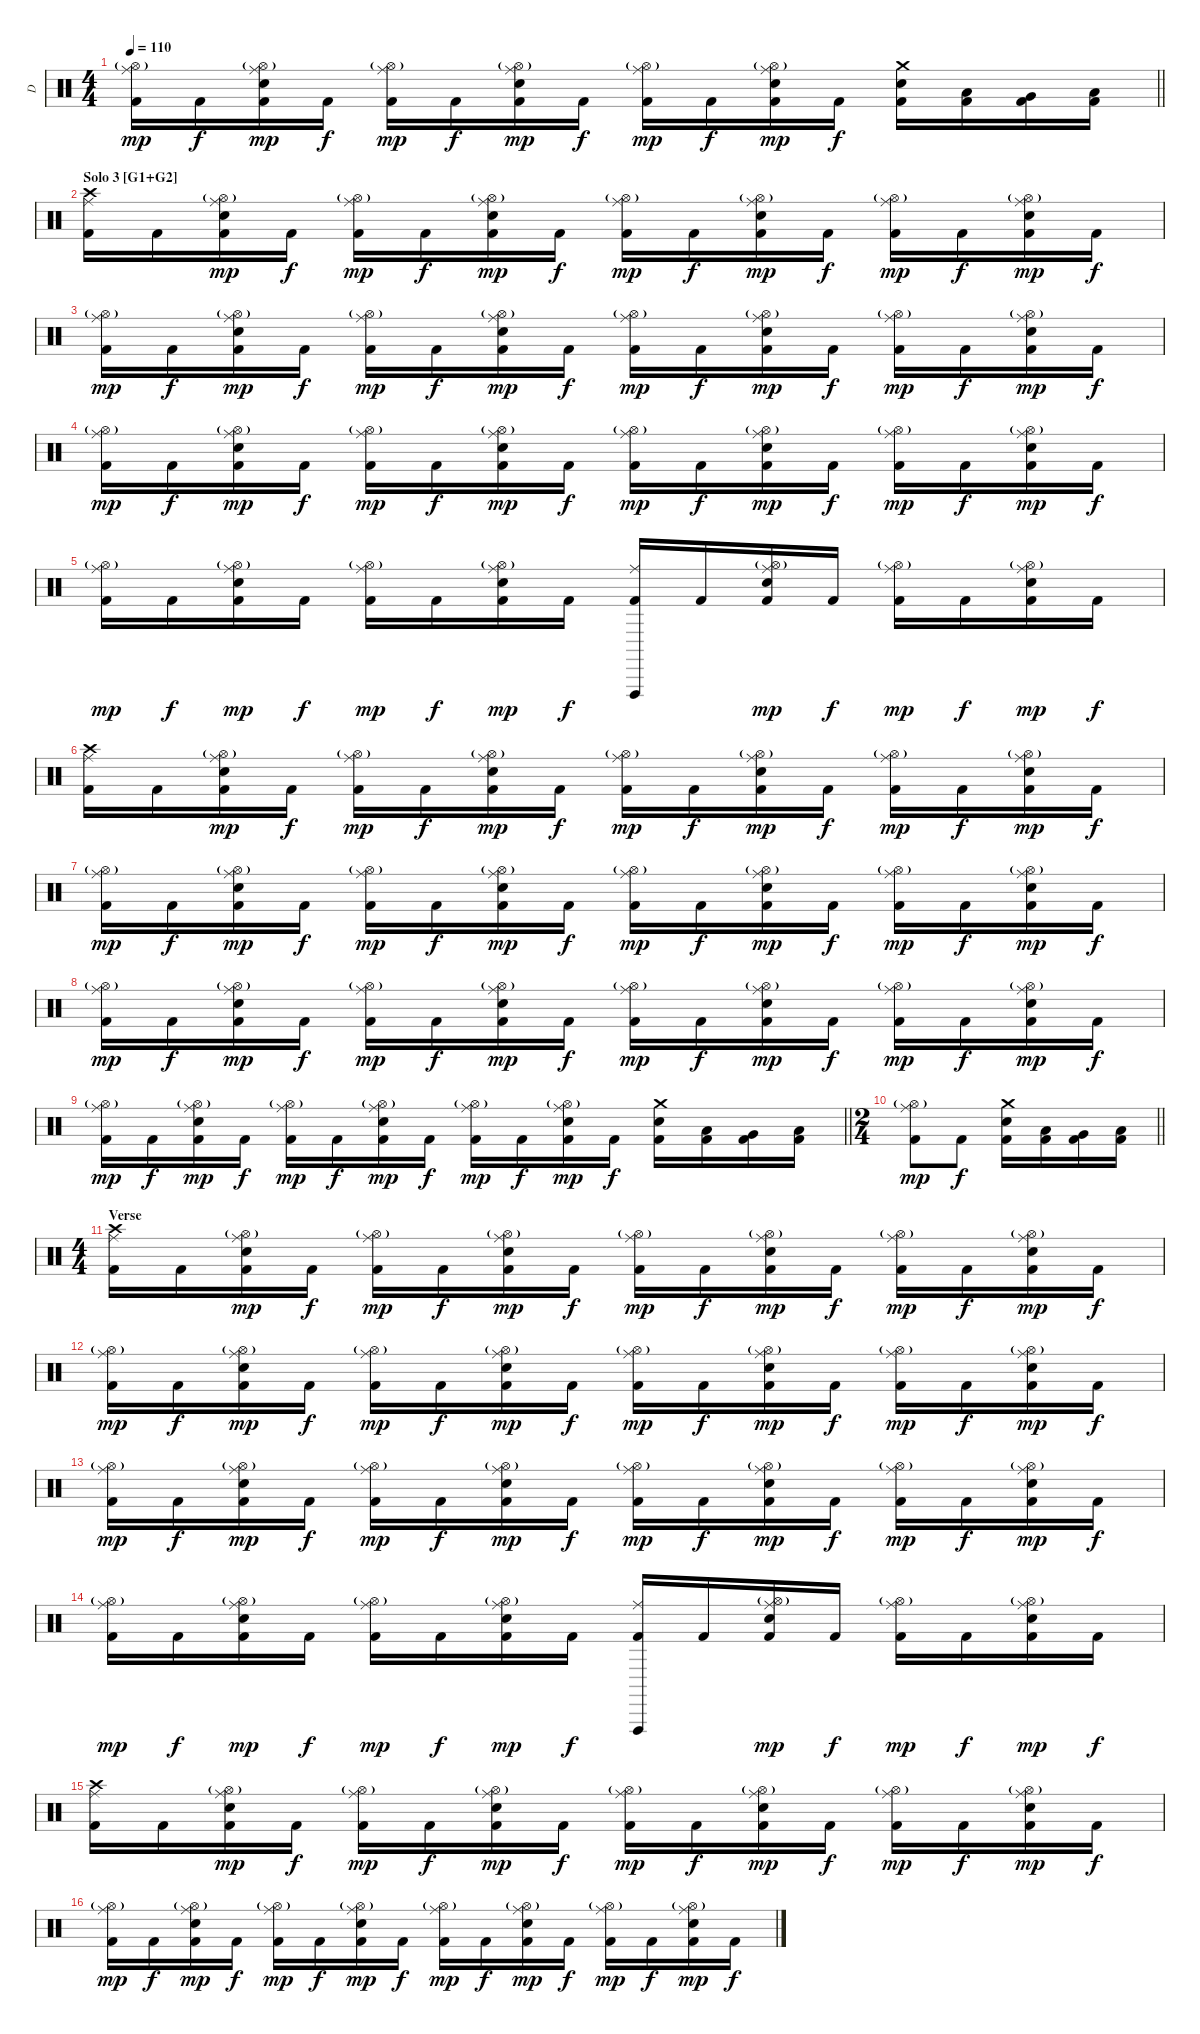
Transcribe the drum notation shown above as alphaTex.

\track ("D" "D") {instrument percussion}
\staff {score}
\articulation defaults
\ts (4 4)
\tempo 110
\clef neutral
\barLineRight lightlight
\ks c
("Ride (middle)" "Hi-Hat (open)"{g} "Kick (hit) 2").16{dy mp} "Kick (hit) 2".16{dy f} ("Ride (middle)" "Hi-Hat (open)"{g} "Electric Snare (hit)" "Kick (hit) 2").16{dy mp} "Kick (hit) 2".16{dy f} ("Ride (middle)" "Hi-Hat (open)"{g} "Kick (hit) 2").16{dy mp} "Kick (hit) 2".16{dy f} ("Ride (middle)" "Hi-Hat (open)"{g} "Electric Snare (hit)" "Kick (hit) 2").16{dy mp} "Kick (hit) 2".16{dy f} ("Ride (middle)" "Hi-Hat (open)"{g} "Kick (hit) 2").16{dy mp} "Kick (hit) 2".16{dy f} ("Ride (middle)" "Hi-Hat (open)"{g} "Electric Snare (hit)" "Kick (hit) 2").16{dy mp} "Kick (hit) 2".16{dy f} ("Crash medium (hit)" "Electric Snare (hit)" "Kick (hit) 2").16 ("Low Tom (hit)" "Kick (hit) 2").16 ("Very Low Tom (hit)" "Kick (hit) 2").16 ("Low Floor Tom (hit)" "Kick (hit) 2").16 |
\section ("" "Solo 3 [G1+G2]")
("Crash high (hit)" "Ride (middle)" "Kick (hit) 2").16 "Kick (hit) 2".16 ("Ride (middle)" "Hi-Hat (open)"{g} "Electric Snare (hit)" "Kick (hit) 2").16{dy mp} "Kick (hit) 2".16{dy f} ("Ride (middle)" "Hi-Hat (open)"{g} "Kick (hit) 2").16{dy mp} "Kick (hit) 2".16{dy f} ("Ride (middle)" "Hi-Hat (open)"{g} "Electric Snare (hit)" "Kick (hit) 2").16{dy mp} "Kick (hit) 2".16{dy f} ("Ride (middle)" "Hi-Hat (open)"{g} "Kick (hit) 2").16{dy mp} "Kick (hit) 2".16{dy f} ("Ride (middle)" "Hi-Hat (open)"{g} "Electric Snare (hit)" "Kick (hit) 2").16{dy mp} "Kick (hit) 2".16{dy f} ("Ride (middle)" "Hi-Hat (open)"{g} "Kick (hit) 2").16{dy mp} "Kick (hit) 2".16{dy f} ("Ride (middle)" "Hi-Hat (open)"{g} "Electric Snare (hit)" "Kick (hit) 2").16{dy mp} "Kick (hit) 2".16{dy f} |
("Ride (middle)" "Hi-Hat (open)"{g} "Kick (hit) 2").16{dy mp} "Kick (hit) 2".16{dy f} ("Ride (middle)" "Hi-Hat (open)"{g} "Electric Snare (hit)" "Kick (hit) 2").16{dy mp} "Kick (hit) 2".16{dy f} ("Ride (middle)" "Hi-Hat (open)"{g} "Kick (hit) 2").16{dy mp} "Kick (hit) 2".16{dy f} ("Ride (middle)" "Hi-Hat (open)"{g} "Electric Snare (hit)" "Kick (hit) 2").16{dy mp} "Kick (hit) 2".16{dy f} ("Ride (middle)" "Hi-Hat (open)"{g} "Kick (hit) 2").16{dy mp} "Kick (hit) 2".16{dy f} ("Ride (middle)" "Hi-Hat (open)"{g} "Electric Snare (hit)" "Kick (hit) 2").16{dy mp} "Kick (hit) 2".16{dy f} ("Ride (middle)" "Hi-Hat (open)"{g} "Kick (hit) 2").16{dy mp} "Kick (hit) 2".16{dy f} ("Ride (middle)" "Hi-Hat (open)"{g} "Electric Snare (hit)" "Kick (hit) 2").16{dy mp} "Kick (hit) 2".16{dy f} |
("Ride (middle)" "Hi-Hat (open)"{g} "Kick (hit) 2").16{dy mp} "Kick (hit) 2".16{dy f} ("Ride (middle)" "Hi-Hat (open)"{g} "Electric Snare (hit)" "Kick (hit) 2").16{dy mp} "Kick (hit) 2".16{dy f} ("Ride (middle)" "Hi-Hat (open)"{g} "Kick (hit) 2").16{dy mp} "Kick (hit) 2".16{dy f} ("Ride (middle)" "Hi-Hat (open)"{g} "Electric Snare (hit)" "Kick (hit) 2").16{dy mp} "Kick (hit) 2".16{dy f} ("Ride (middle)" "Hi-Hat (open)"{g} "Kick (hit) 2").16{dy mp} "Kick (hit) 2".16{dy f} ("Ride (middle)" "Hi-Hat (open)"{g} "Electric Snare (hit)" "Kick (hit) 2").16{dy mp} "Kick (hit) 2".16{dy f} ("Ride (middle)" "Hi-Hat (open)"{g} "Kick (hit) 2").16{dy mp} "Kick (hit) 2".16{dy f} ("Ride (middle)" "Hi-Hat (open)"{g} "Electric Snare (hit)" "Kick (hit) 2").16{dy mp} "Kick (hit) 2".16{dy f} |
("Ride (middle)" "Hi-Hat (open)"{g} "Kick (hit) 2").16{dy mp} "Kick (hit) 2".16{dy f} ("Ride (middle)" "Hi-Hat (open)"{g} "Electric Snare (hit)" "Kick (hit) 2").16{dy mp} "Kick (hit) 2".16{dy f} ("Ride (middle)" "Hi-Hat (open)"{g} "Kick (hit) 2").16{dy mp} "Kick (hit) 2".16{dy f} ("Ride (middle)" "Hi-Hat (open)"{g} "Electric Snare (hit)" "Kick (hit) 2").16{dy mp} "Kick (hit) 2".16{dy f} ("Ride (middle)" "Vibraslap (hit)" "Kick (hit) 2").16 "Kick (hit) 2".16 ("Ride (middle)" "Hi-Hat (open)"{g} "Electric Snare (hit)" "Kick (hit) 2").16{dy mp} "Kick (hit) 2".16{dy f} ("Ride (middle)" "Hi-Hat (open)"{g} "Kick (hit) 2").16{dy mp} "Kick (hit) 2".16{dy f} ("Ride (middle)" "Hi-Hat (open)"{g} "Electric Snare (hit)" "Kick (hit) 2").16{dy mp} "Kick (hit) 2".16{dy f} |
("Crash high (hit)" "Ride (middle)" "Kick (hit) 2").16 "Kick (hit) 2".16 ("Ride (middle)" "Hi-Hat (open)"{g} "Electric Snare (hit)" "Kick (hit) 2").16{dy mp} "Kick (hit) 2".16{dy f} ("Ride (middle)" "Hi-Hat (open)"{g} "Kick (hit) 2").16{dy mp} "Kick (hit) 2".16{dy f} ("Ride (middle)" "Hi-Hat (open)"{g} "Electric Snare (hit)" "Kick (hit) 2").16{dy mp} "Kick (hit) 2".16{dy f} ("Ride (middle)" "Hi-Hat (open)"{g} "Kick (hit) 2").16{dy mp} "Kick (hit) 2".16{dy f} ("Ride (middle)" "Hi-Hat (open)"{g} "Electric Snare (hit)" "Kick (hit) 2").16{dy mp} "Kick (hit) 2".16{dy f} ("Ride (middle)" "Hi-Hat (open)"{g} "Kick (hit) 2").16{dy mp} "Kick (hit) 2".16{dy f} ("Ride (middle)" "Hi-Hat (open)"{g} "Electric Snare (hit)" "Kick (hit) 2").16{dy mp} "Kick (hit) 2".16{dy f} |
("Ride (middle)" "Hi-Hat (open)"{g} "Kick (hit) 2").16{dy mp} "Kick (hit) 2".16{dy f} ("Ride (middle)" "Hi-Hat (open)"{g} "Electric Snare (hit)" "Kick (hit) 2").16{dy mp} "Kick (hit) 2".16{dy f} ("Ride (middle)" "Hi-Hat (open)"{g} "Kick (hit) 2").16{dy mp} "Kick (hit) 2".16{dy f} ("Ride (middle)" "Hi-Hat (open)"{g} "Electric Snare (hit)" "Kick (hit) 2").16{dy mp} "Kick (hit) 2".16{dy f} ("Ride (middle)" "Hi-Hat (open)"{g} "Kick (hit) 2").16{dy mp} "Kick (hit) 2".16{dy f} ("Ride (middle)" "Hi-Hat (open)"{g} "Electric Snare (hit)" "Kick (hit) 2").16{dy mp} "Kick (hit) 2".16{dy f} ("Ride (middle)" "Hi-Hat (open)"{g} "Kick (hit) 2").16{dy mp} "Kick (hit) 2".16{dy f} ("Ride (middle)" "Hi-Hat (open)"{g} "Electric Snare (hit)" "Kick (hit) 2").16{dy mp} "Kick (hit) 2".16{dy f} |
("Ride (middle)" "Hi-Hat (open)"{g} "Kick (hit) 2").16{dy mp} "Kick (hit) 2".16{dy f} ("Ride (middle)" "Hi-Hat (open)"{g} "Electric Snare (hit)" "Kick (hit) 2").16{dy mp} "Kick (hit) 2".16{dy f} ("Ride (middle)" "Hi-Hat (open)"{g} "Kick (hit) 2").16{dy mp} "Kick (hit) 2".16{dy f} ("Ride (middle)" "Hi-Hat (open)"{g} "Electric Snare (hit)" "Kick (hit) 2").16{dy mp} "Kick (hit) 2".16{dy f} ("Ride (middle)" "Hi-Hat (open)"{g} "Kick (hit) 2").16{dy mp} "Kick (hit) 2".16{dy f} ("Ride (middle)" "Hi-Hat (open)"{g} "Electric Snare (hit)" "Kick (hit) 2").16{dy mp} "Kick (hit) 2".16{dy f} ("Ride (middle)" "Hi-Hat (open)"{g} "Kick (hit) 2").16{dy mp} "Kick (hit) 2".16{dy f} ("Ride (middle)" "Hi-Hat (open)"{g} "Electric Snare (hit)" "Kick (hit) 2").16{dy mp} "Kick (hit) 2".16{dy f} |
\barLineRight lightlight
("Ride (middle)" "Hi-Hat (open)"{g} "Kick (hit) 2").16{dy mp} "Kick (hit) 2".16{dy f} ("Ride (middle)" "Hi-Hat (open)"{g} "Electric Snare (hit)" "Kick (hit) 2").16{dy mp} "Kick (hit) 2".16{dy f} ("Ride (middle)" "Hi-Hat (open)"{g} "Kick (hit) 2").16{dy mp} "Kick (hit) 2".16{dy f} ("Ride (middle)" "Hi-Hat (open)"{g} "Electric Snare (hit)" "Kick (hit) 2").16{dy mp} "Kick (hit) 2".16{dy f} ("Ride (middle)" "Hi-Hat (open)"{g} "Kick (hit) 2").16{dy mp} "Kick (hit) 2".16{dy f} ("Ride (middle)" "Hi-Hat (open)"{g} "Electric Snare (hit)" "Kick (hit) 2").16{dy mp} "Kick (hit) 2".16{dy f} ("Crash medium (hit)" "Electric Snare (hit)" "Kick (hit) 2").16 ("Low Tom (hit)" "Kick (hit) 2").16 ("Very Low Tom (hit)" "Kick (hit) 2").16 ("Low Floor Tom (hit)" "Kick (hit) 2").16 |
\ts (2 4)
\section ("" "")
\barLineRight lightlight
("Ride (middle)" "Hi-Hat (open)"{g} "Kick (hit) 2").8{dy mp} "Kick (hit) 2".8{dy f} ("Crash medium (hit)" "Electric Snare (hit)" "Kick (hit) 2").16 ("Low Tom (hit)" "Kick (hit) 2").16 ("Very Low Tom (hit)" "Kick (hit) 2").16 ("Low Floor Tom (hit)" "Kick (hit) 2").16 |
\ts (4 4)
\section ("" "Verse")
("Crash high (hit)" "Ride (middle)" "Kick (hit) 2").16 "Kick (hit) 2".16 ("Ride (middle)" "Hi-Hat (open)"{g} "Electric Snare (hit)" "Kick (hit) 2").16{dy mp} "Kick (hit) 2".16{dy f} ("Ride (middle)" "Hi-Hat (open)"{g} "Kick (hit) 2").16{dy mp} "Kick (hit) 2".16{dy f} ("Ride (middle)" "Hi-Hat (open)"{g} "Electric Snare (hit)" "Kick (hit) 2").16{dy mp} "Kick (hit) 2".16{dy f} ("Ride (middle)" "Hi-Hat (open)"{g} "Kick (hit) 2").16{dy mp} "Kick (hit) 2".16{dy f} ("Ride (middle)" "Hi-Hat (open)"{g} "Electric Snare (hit)" "Kick (hit) 2").16{dy mp} "Kick (hit) 2".16{dy f} ("Ride (middle)" "Hi-Hat (open)"{g} "Kick (hit) 2").16{dy mp} "Kick (hit) 2".16{dy f} ("Ride (middle)" "Hi-Hat (open)"{g} "Electric Snare (hit)" "Kick (hit) 2").16{dy mp} "Kick (hit) 2".16{dy f} |
("Ride (middle)" "Hi-Hat (open)"{g} "Kick (hit) 2").16{dy mp} "Kick (hit) 2".16{dy f} ("Ride (middle)" "Hi-Hat (open)"{g} "Electric Snare (hit)" "Kick (hit) 2").16{dy mp} "Kick (hit) 2".16{dy f} ("Ride (middle)" "Hi-Hat (open)"{g} "Kick (hit) 2").16{dy mp} "Kick (hit) 2".16{dy f} ("Ride (middle)" "Hi-Hat (open)"{g} "Electric Snare (hit)" "Kick (hit) 2").16{dy mp} "Kick (hit) 2".16{dy f} ("Ride (middle)" "Hi-Hat (open)"{g} "Kick (hit) 2").16{dy mp} "Kick (hit) 2".16{dy f} ("Ride (middle)" "Hi-Hat (open)"{g} "Electric Snare (hit)" "Kick (hit) 2").16{dy mp} "Kick (hit) 2".16{dy f} ("Ride (middle)" "Hi-Hat (open)"{g} "Kick (hit) 2").16{dy mp} "Kick (hit) 2".16{dy f} ("Ride (middle)" "Hi-Hat (open)"{g} "Electric Snare (hit)" "Kick (hit) 2").16{dy mp} "Kick (hit) 2".16{dy f} |
("Ride (middle)" "Hi-Hat (open)"{g} "Kick (hit) 2").16{dy mp} "Kick (hit) 2".16{dy f} ("Ride (middle)" "Hi-Hat (open)"{g} "Electric Snare (hit)" "Kick (hit) 2").16{dy mp} "Kick (hit) 2".16{dy f} ("Ride (middle)" "Hi-Hat (open)"{g} "Kick (hit) 2").16{dy mp} "Kick (hit) 2".16{dy f} ("Ride (middle)" "Hi-Hat (open)"{g} "Electric Snare (hit)" "Kick (hit) 2").16{dy mp} "Kick (hit) 2".16{dy f} ("Ride (middle)" "Hi-Hat (open)"{g} "Kick (hit) 2").16{dy mp} "Kick (hit) 2".16{dy f} ("Ride (middle)" "Hi-Hat (open)"{g} "Electric Snare (hit)" "Kick (hit) 2").16{dy mp} "Kick (hit) 2".16{dy f} ("Ride (middle)" "Hi-Hat (open)"{g} "Kick (hit) 2").16{dy mp} "Kick (hit) 2".16{dy f} ("Ride (middle)" "Hi-Hat (open)"{g} "Electric Snare (hit)" "Kick (hit) 2").16{dy mp} "Kick (hit) 2".16{dy f} |
("Ride (middle)" "Hi-Hat (open)"{g} "Kick (hit) 2").16{dy mp} "Kick (hit) 2".16{dy f} ("Ride (middle)" "Hi-Hat (open)"{g} "Electric Snare (hit)" "Kick (hit) 2").16{dy mp} "Kick (hit) 2".16{dy f} ("Ride (middle)" "Hi-Hat (open)"{g} "Kick (hit) 2").16{dy mp} "Kick (hit) 2".16{dy f} ("Ride (middle)" "Hi-Hat (open)"{g} "Electric Snare (hit)" "Kick (hit) 2").16{dy mp} "Kick (hit) 2".16{dy f} ("Ride (middle)" "Vibraslap (hit)" "Kick (hit) 2").16 "Kick (hit) 2".16 ("Ride (middle)" "Hi-Hat (open)"{g} "Electric Snare (hit)" "Kick (hit) 2").16{dy mp} "Kick (hit) 2".16{dy f} ("Ride (middle)" "Hi-Hat (open)"{g} "Kick (hit) 2").16{dy mp} "Kick (hit) 2".16{dy f} ("Ride (middle)" "Hi-Hat (open)"{g} "Electric Snare (hit)" "Kick (hit) 2").16{dy mp} "Kick (hit) 2".16{dy f} |
("Crash high (hit)" "Ride (middle)" "Kick (hit) 2").16 "Kick (hit) 2".16 ("Ride (middle)" "Hi-Hat (open)"{g} "Electric Snare (hit)" "Kick (hit) 2").16{dy mp} "Kick (hit) 2".16{dy f} ("Ride (middle)" "Hi-Hat (open)"{g} "Kick (hit) 2").16{dy mp} "Kick (hit) 2".16{dy f} ("Ride (middle)" "Hi-Hat (open)"{g} "Electric Snare (hit)" "Kick (hit) 2").16{dy mp} "Kick (hit) 2".16{dy f} ("Ride (middle)" "Hi-Hat (open)"{g} "Kick (hit) 2").16{dy mp} "Kick (hit) 2".16{dy f} ("Ride (middle)" "Hi-Hat (open)"{g} "Electric Snare (hit)" "Kick (hit) 2").16{dy mp} "Kick (hit) 2".16{dy f} ("Ride (middle)" "Hi-Hat (open)"{g} "Kick (hit) 2").16{dy mp} "Kick (hit) 2".16{dy f} ("Ride (middle)" "Hi-Hat (open)"{g} "Electric Snare (hit)" "Kick (hit) 2").16{dy mp} "Kick (hit) 2".16{dy f} |
("Ride (middle)" "Hi-Hat (open)"{g} "Kick (hit) 2").16{dy mp} "Kick (hit) 2".16{dy f} ("Ride (middle)" "Hi-Hat (open)"{g} "Electric Snare (hit)" "Kick (hit) 2").16{dy mp} "Kick (hit) 2".16{dy f} ("Ride (middle)" "Hi-Hat (open)"{g} "Kick (hit) 2").16{dy mp} "Kick (hit) 2".16{dy f} ("Ride (middle)" "Hi-Hat (open)"{g} "Electric Snare (hit)" "Kick (hit) 2").16{dy mp} "Kick (hit) 2".16{dy f} ("Ride (middle)" "Hi-Hat (open)"{g} "Kick (hit) 2").16{dy mp} "Kick (hit) 2".16{dy f} ("Ride (middle)" "Hi-Hat (open)"{g} "Electric Snare (hit)" "Kick (hit) 2").16{dy mp} "Kick (hit) 2".16{dy f} ("Ride (middle)" "Hi-Hat (open)"{g} "Kick (hit) 2").16{dy mp} "Kick (hit) 2".16{dy f} ("Ride (middle)" "Hi-Hat (open)"{g} "Electric Snare (hit)" "Kick (hit) 2").16{dy mp} "Kick (hit) 2".16{dy f}
